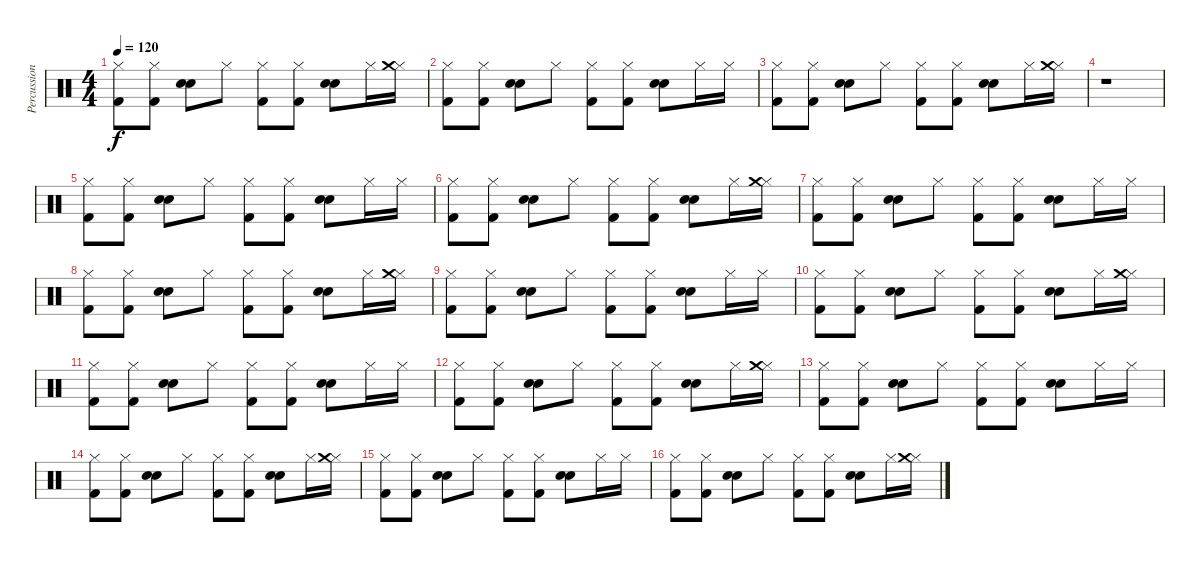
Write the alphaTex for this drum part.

\track ("Percussions" "Percussion") {instrument percussion}
\staff {score}
\articulation defaults
\ts (4 4)
\tempo 120
\clef neutral
\ks c
("Kick (hit) 2" "Hi-Hat (closed)").8{dy f} ("Kick (hit) 2" "Hi-Hat (closed)").8 ("Hand Clap (hit)" "Electric Snare (hit)").8 "Hi-Hat (closed)".8 ("Kick (hit) 2" "Hi-Hat (closed)").8 ("Kick (hit) 2" "Hi-Hat (closed)").8 ("Hand Clap (hit)" "Electric Snare (hit)").8 "Hi-Hat (closed)".16 ("Hi-Hat (closed)" "Crash medium (hit)").16 |
("Kick (hit) 2" "Hi-Hat (closed)").8 ("Kick (hit) 2" "Hi-Hat (closed)").8 ("Hand Clap (hit)" "Electric Snare (hit)").8 "Hi-Hat (closed)".8 ("Kick (hit) 2" "Hi-Hat (closed)").8 ("Kick (hit) 2" "Hi-Hat (closed)").8 ("Hand Clap (hit)" "Electric Snare (hit)").8 "Hi-Hat (closed)".16 "Hi-Hat (closed)".16 |
("Kick (hit) 2" "Hi-Hat (closed)").8 ("Kick (hit) 2" "Hi-Hat (closed)").8 ("Hand Clap (hit)" "Electric Snare (hit)").8 "Hi-Hat (closed)".8 ("Kick (hit) 2" "Hi-Hat (closed)").8 ("Kick (hit) 2" "Hi-Hat (closed)").8 ("Hand Clap (hit)" "Electric Snare (hit)").8 "Hi-Hat (closed)".16 ("Hi-Hat (closed)" "Crash medium (hit)").16 |
r.1 |
("Kick (hit) 2" "Hi-Hat (closed)").8 ("Kick (hit) 2" "Hi-Hat (closed)").8 ("Hand Clap (hit)" "Electric Snare (hit)").8 "Hi-Hat (closed)".8 ("Kick (hit) 2" "Hi-Hat (closed)").8 ("Kick (hit) 2" "Hi-Hat (closed)").8 ("Hand Clap (hit)" "Electric Snare (hit)").8 "Hi-Hat (closed)".16 "Hi-Hat (closed)".16 |
("Kick (hit) 2" "Hi-Hat (closed)").8 ("Kick (hit) 2" "Hi-Hat (closed)").8 ("Hand Clap (hit)" "Electric Snare (hit)").8 "Hi-Hat (closed)".8 ("Kick (hit) 2" "Hi-Hat (closed)").8 ("Kick (hit) 2" "Hi-Hat (closed)").8 ("Hand Clap (hit)" "Electric Snare (hit)").8 "Hi-Hat (closed)".16 ("Hi-Hat (closed)" "Crash medium (hit)").16 |
("Kick (hit) 2" "Hi-Hat (closed)").8 ("Kick (hit) 2" "Hi-Hat (closed)").8 ("Hand Clap (hit)" "Electric Snare (hit)").8 "Hi-Hat (closed)".8 ("Kick (hit) 2" "Hi-Hat (closed)").8 ("Kick (hit) 2" "Hi-Hat (closed)").8 ("Hand Clap (hit)" "Electric Snare (hit)").8 "Hi-Hat (closed)".16 "Hi-Hat (closed)".16 |
("Kick (hit) 2" "Hi-Hat (closed)").8 ("Kick (hit) 2" "Hi-Hat (closed)").8 ("Hand Clap (hit)" "Electric Snare (hit)").8 "Hi-Hat (closed)".8 ("Kick (hit) 2" "Hi-Hat (closed)").8 ("Kick (hit) 2" "Hi-Hat (closed)").8 ("Hand Clap (hit)" "Electric Snare (hit)").8 "Hi-Hat (closed)".16 ("Hi-Hat (closed)" "Crash medium (hit)").16 |
("Kick (hit) 2" "Hi-Hat (closed)").8 ("Kick (hit) 2" "Hi-Hat (closed)").8 ("Hand Clap (hit)" "Electric Snare (hit)").8 "Hi-Hat (closed)".8 ("Kick (hit) 2" "Hi-Hat (closed)").8 ("Kick (hit) 2" "Hi-Hat (closed)").8 ("Hand Clap (hit)" "Electric Snare (hit)").8 "Hi-Hat (closed)".16 "Hi-Hat (closed)".16 |
("Kick (hit) 2" "Hi-Hat (closed)").8 ("Kick (hit) 2" "Hi-Hat (closed)").8 ("Hand Clap (hit)" "Electric Snare (hit)").8 "Hi-Hat (closed)".8 ("Kick (hit) 2" "Hi-Hat (closed)").8 ("Kick (hit) 2" "Hi-Hat (closed)").8 ("Hand Clap (hit)" "Electric Snare (hit)").8 "Hi-Hat (closed)".16 ("Hi-Hat (closed)" "Crash medium (hit)").16 |
("Kick (hit) 2" "Hi-Hat (closed)").8 ("Kick (hit) 2" "Hi-Hat (closed)").8 ("Hand Clap (hit)" "Electric Snare (hit)").8 "Hi-Hat (closed)".8 ("Kick (hit) 2" "Hi-Hat (closed)").8 ("Kick (hit) 2" "Hi-Hat (closed)").8 ("Hand Clap (hit)" "Electric Snare (hit)").8 "Hi-Hat (closed)".16 "Hi-Hat (closed)".16 |
("Kick (hit) 2" "Hi-Hat (closed)").8 ("Kick (hit) 2" "Hi-Hat (closed)").8 ("Hand Clap (hit)" "Electric Snare (hit)").8 "Hi-Hat (closed)".8 ("Kick (hit) 2" "Hi-Hat (closed)").8 ("Kick (hit) 2" "Hi-Hat (closed)").8 ("Hand Clap (hit)" "Electric Snare (hit)").8 "Hi-Hat (closed)".16 ("Hi-Hat (closed)" "Crash medium (hit)").16 |
("Kick (hit) 2" "Hi-Hat (closed)").8 ("Kick (hit) 2" "Hi-Hat (closed)").8 ("Hand Clap (hit)" "Electric Snare (hit)").8 "Hi-Hat (closed)".8 ("Kick (hit) 2" "Hi-Hat (closed)").8 ("Kick (hit) 2" "Hi-Hat (closed)").8 ("Hand Clap (hit)" "Electric Snare (hit)").8 "Hi-Hat (closed)".16 "Hi-Hat (closed)".16 |
("Kick (hit) 2" "Hi-Hat (closed)").8 ("Kick (hit) 2" "Hi-Hat (closed)").8 ("Hand Clap (hit)" "Electric Snare (hit)").8 "Hi-Hat (closed)".8 ("Kick (hit) 2" "Hi-Hat (closed)").8 ("Kick (hit) 2" "Hi-Hat (closed)").8 ("Hand Clap (hit)" "Electric Snare (hit)").8 "Hi-Hat (closed)".16 ("Hi-Hat (closed)" "Crash medium (hit)").16 |
("Kick (hit) 2" "Hi-Hat (closed)").8 ("Kick (hit) 2" "Hi-Hat (closed)").8 ("Hand Clap (hit)" "Electric Snare (hit)").8 "Hi-Hat (closed)".8 ("Kick (hit) 2" "Hi-Hat (closed)").8 ("Kick (hit) 2" "Hi-Hat (closed)").8 ("Hand Clap (hit)" "Electric Snare (hit)").8 "Hi-Hat (closed)".16 "Hi-Hat (closed)".16 |
("Kick (hit) 2" "Hi-Hat (closed)").8 ("Kick (hit) 2" "Hi-Hat (closed)").8 ("Hand Clap (hit)" "Electric Snare (hit)").8 "Hi-Hat (closed)".8 ("Kick (hit) 2" "Hi-Hat (closed)").8 ("Kick (hit) 2" "Hi-Hat (closed)").8 ("Hand Clap (hit)" "Electric Snare (hit)").8 "Hi-Hat (closed)".16 ("Hi-Hat (closed)" "Crash medium (hit)").16
